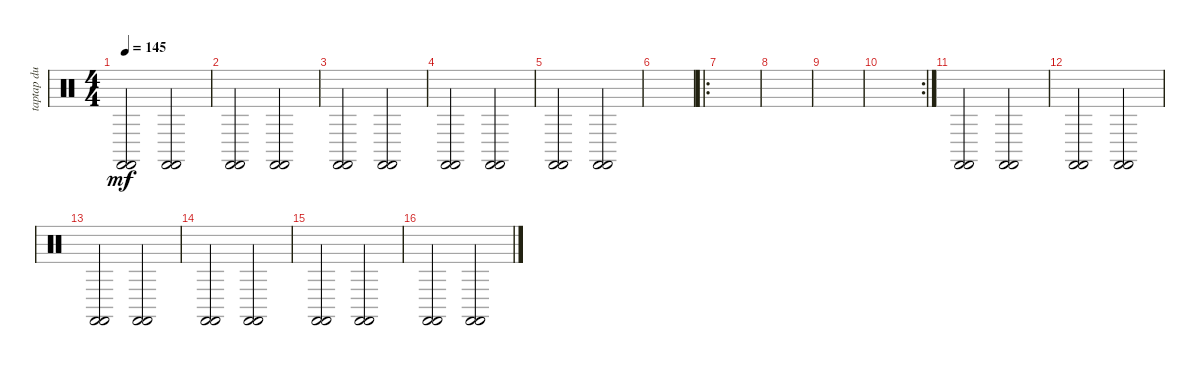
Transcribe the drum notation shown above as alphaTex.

\track ("taptap du pied" "taptap du ") {instrument percussion}
\staff {score}
\articulation defaults
\ts (4 4)
\tempo 145
\clef neutral
\ks c
("Castanets (hit)" "Castanets (hit)").2{dy mf} ("Castanets (hit)" "Castanets (hit)").2 |
("Castanets (hit)" "Castanets (hit)").2 ("Castanets (hit)" "Castanets (hit)").2 |
("Castanets (hit)" "Castanets (hit)").2 ("Castanets (hit)" "Castanets (hit)").2 |
("Castanets (hit)" "Castanets (hit)").2 ("Castanets (hit)" "Castanets (hit)").2 |
("Castanets (hit)" "Castanets (hit)").2 ("Castanets (hit)" "Castanets (hit)").2 |
|
\ro
|
|
|
\rc 2
|
("Castanets (hit)" "Castanets (hit)").2 ("Castanets (hit)" "Castanets (hit)").2 |
("Castanets (hit)" "Castanets (hit)").2 ("Castanets (hit)" "Castanets (hit)").2 |
("Castanets (hit)" "Castanets (hit)").2 ("Castanets (hit)" "Castanets (hit)").2 |
("Castanets (hit)" "Castanets (hit)").2 ("Castanets (hit)" "Castanets (hit)").2 |
("Castanets (hit)" "Castanets (hit)").2 ("Castanets (hit)" "Castanets (hit)").2 |
("Castanets (hit)" "Castanets (hit)").2 ("Castanets (hit)" "Castanets (hit)").2
